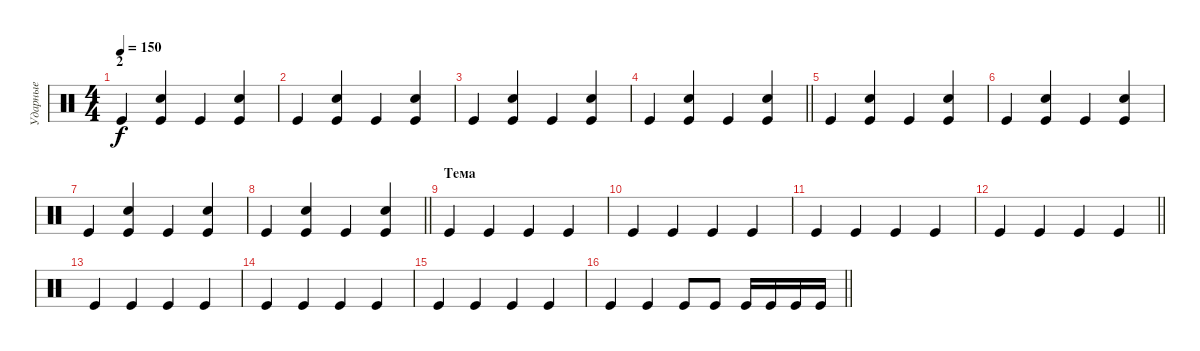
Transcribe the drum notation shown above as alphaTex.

\track ("Ударные" "Ударные") {instrument percussion}
\staff {score}
\articulation defaults
\ts (4 4)
\section ("" "2")
\tempo 150
\clef neutral
\ks c "Kick (hit)".4{dy f}
("Kick (hit)" "Snare (hit) 2").4 "Kick (hit)".4 ("Kick (hit)" "Snare (hit) 2").4 |
"Kick (hit)".4 ("Kick (hit)" "Snare (hit) 2").4 "Kick (hit)".4 ("Kick (hit)" "Snare (hit) 2").4 |
"Kick (hit)".4 ("Kick (hit)" "Snare (hit) 2").4 "Kick (hit)".4 ("Kick (hit)" "Snare (hit) 2").4 |
\barLineRight lightlight "Kick (hit)".4
("Kick (hit)" "Snare (hit) 2").4 "Kick (hit)".4 ("Kick (hit)" "Snare (hit) 2").4 |
"Kick (hit)".4 ("Kick (hit)" "Snare (hit) 2").4 "Kick (hit)".4 ("Kick (hit)" "Snare (hit) 2").4 |
"Kick (hit)".4 ("Kick (hit)" "Snare (hit) 2").4 "Kick (hit)".4 ("Kick (hit)" "Snare (hit) 2").4 |
"Kick (hit)".4 ("Kick (hit)" "Snare (hit) 2").4 "Kick (hit)".4 ("Kick (hit)" "Snare (hit) 2").4 |
\barLineRight lightlight "Kick (hit)".4
("Kick (hit)" "Snare (hit) 2").4 "Kick (hit)".4 ("Kick (hit)" "Snare (hit) 2").4 |
\section ("" "Тема")
"Kick (hit)".4 "Kick (hit)".4 "Kick (hit)".4 "Kick (hit)".4 |
"Kick (hit)".4 "Kick (hit)".4 "Kick (hit)".4 "Kick (hit)".4 |
"Kick (hit)".4 "Kick (hit)".4 "Kick (hit)".4 "Kick (hit)".4 |
\barLineRight lightlight "Kick (hit)".4 "Kick (hit)".4 "Kick (hit)".4 "Kick (hit)".4
|
"Kick (hit)".4 "Kick (hit)".4 "Kick (hit)".4 "Kick (hit)".4 |
"Kick (hit)".4 "Kick (hit)".4 "Kick (hit)".4 "Kick (hit)".4 |
"Kick (hit)".4 "Kick (hit)".4 "Kick (hit)".4 "Kick (hit)".4 |
\barLineRight lightlight "Kick (hit)".4 "Kick (hit)".4 "Kick (hit)".8 "Kick (hit)".8 "Kick (hit)".16 "Kick (hit)".16 "Kick (hit)".16 "Kick (hit)".16
